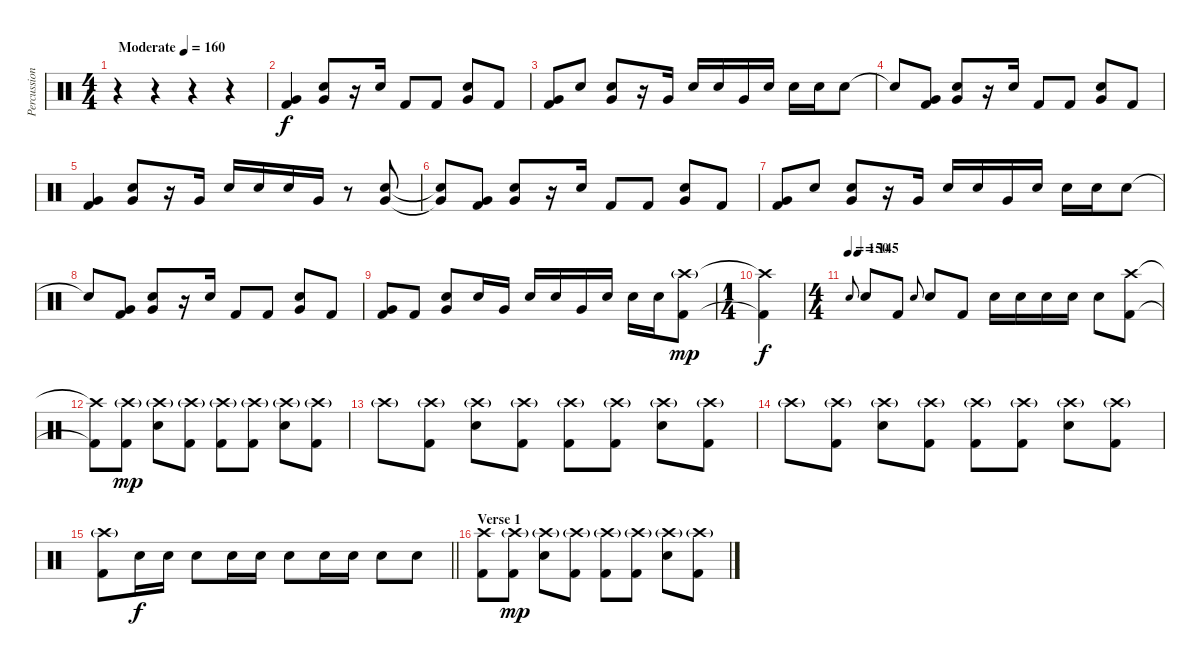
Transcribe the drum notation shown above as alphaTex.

\track ("Percussion" "Percussion") {instrument percussion}
\staff {score}
\articulation defaults
\ts (4 4)
\tempo (160 "Moderate")
\clef neutral
\ks c
r.4{dy f} r.4 r.4 r.4 |
("Very Low Tom (hit)" "Kick (hit) 2").4 ("Snare (hit) 2" "Very Low Tom (hit)").8 r.16 "Snare (hit) 2".16 "Kick (hit) 2".8 "Kick (hit) 2".8 ("Snare (hit) 2" "Very Low Tom (hit)").8 "Kick (hit) 2".8 |
("Very Low Tom (hit)" "Kick (hit) 2").8 "Snare (hit) 2".8 ("Snare (hit) 2" "Very Low Tom (hit)").8 r.16 "Very Low Tom (hit)".16 "Snare (hit) 2".16 "Snare (hit) 2".16 "Very Low Tom (hit)".16 "Snare (hit) 2".16 "Snare (hit) 2".16 "Snare (hit) 2".16 "Snare (hit) 2".8 |
"Snare (hit) 2"{t}.8 ("Very Low Tom (hit)" "Kick (hit) 2").8 ("Snare (hit) 2" "Very Low Tom (hit)").8 r.16 "Snare (hit) 2".16 "Kick (hit) 2".8 "Kick (hit) 2".8 ("Snare (hit) 2" "Very Low Tom (hit)").8 "Kick (hit) 2".8 |
("Very Low Tom (hit)" "Kick (hit) 2").4 ("Snare (hit) 2" "Very Low Tom (hit)").8 r.16 "Very Low Tom (hit)".16 "Snare (hit) 2".16 "Snare (hit) 2".16 "Snare (hit) 2".16 "Very Low Tom (hit)".16 r.8 ("Snare (hit) 2" "Very Low Tom (hit)").8 |
("Snare (hit) 2"{t} "Very Low Tom (hit)"{t}).8 ("Very Low Tom (hit)" "Kick (hit) 2").8 ("Snare (hit) 2" "Very Low Tom (hit)").8 r.16 "Snare (hit) 2".16 "Kick (hit) 2".8 "Kick (hit) 2".8 ("Snare (hit) 2" "Very Low Tom (hit)").8 "Kick (hit) 2".8 |
("Very Low Tom (hit)" "Kick (hit) 2").8 "Snare (hit) 2".8 ("Snare (hit) 2" "Very Low Tom (hit)").8 r.16 "Very Low Tom (hit)".16 "Snare (hit) 2".16 "Snare (hit) 2".16 "Very Low Tom (hit)".16 "Snare (hit) 2".16 "Snare (hit) 2".16 "Snare (hit) 2".16 "Snare (hit) 2".8 |
"Snare (hit) 2"{t}.8 ("Very Low Tom (hit)" "Kick (hit) 2").8 ("Snare (hit) 2" "Very Low Tom (hit)").8 r.16 "Snare (hit) 2".16 "Kick (hit) 2".8 "Kick (hit) 2".8 ("Snare (hit) 2" "Very Low Tom (hit)").8 "Kick (hit) 2".8 |
("Very Low Tom (hit)" "Kick (hit) 2").8 "Kick (hit) 2".8 ("Snare (hit) 2" "Very Low Tom (hit)").8 "Snare (hit) 2".16 "Very Low Tom (hit)".16 "Snare (hit) 2".16 "Snare (hit) 2".16 "Very Low Tom (hit)".16 "Snare (hit) 2".16 "Snare (hit) 2".16 "Snare (hit) 2".16 ("Crash high (hit)"{g} "Kick (hit) 2").8{dy mp} |
\ts (1 4)
("Crash high (hit)"{t} "Kick (hit) 2"{t}).4{dy f} |
\ts (4 4)
\tempo 150
\tempo (145 0.03125)
"Snare (hit) 2".8{gr onbeat} "Snare (hit) 2".8 "Kick (hit) 2".8 "Snare (hit) 2".8{gr onbeat} "Snare (hit) 2".8 "Kick (hit) 2".8 "Snare (hit) 2".16 "Snare (hit) 2".16 "Snare (hit) 2".16 "Snare (hit) 2".16 "Snare (hit) 2".8 ("Crash high (hit)" "Kick (hit) 2").8 |
("Crash high (hit)"{t} "Kick (hit) 2"{t}).8 ("Crash high (hit)"{g} "Kick (hit) 2").8{dy mp} ("Crash high (hit)"{g} "Snare (hit) 2").8 ("Crash high (hit)"{g} "Kick (hit) 2").8 ("Crash high (hit)"{g} "Kick (hit) 2").8 ("Crash high (hit)"{g} "Kick (hit) 2").8 ("Crash high (hit)"{g} "Snare (hit) 2").8 ("Crash high (hit)"{g} "Kick (hit) 2").8 |
"Crash high (hit)"{g}.8 ("Crash high (hit)"{g} "Kick (hit) 2").8 ("Crash high (hit)"{g} "Snare (hit) 2").8 ("Crash high (hit)"{g} "Kick (hit) 2").8 ("Crash high (hit)"{g} "Kick (hit) 2").8 ("Crash high (hit)"{g} "Kick (hit) 2").8 ("Crash high (hit)"{g} "Snare (hit) 2").8 ("Crash high (hit)"{g} "Kick (hit) 2").8 |
"Crash high (hit)"{g}.8 ("Crash high (hit)"{g} "Kick (hit) 2").8 ("Crash high (hit)"{g} "Snare (hit) 2").8 ("Crash high (hit)"{g} "Kick (hit) 2").8 ("Crash high (hit)"{g} "Kick (hit) 2").8 ("Crash high (hit)"{g} "Kick (hit) 2").8 ("Crash high (hit)"{g} "Snare (hit) 2").8 ("Crash high (hit)"{g} "Kick (hit) 2").8 |
\barLineRight lightlight
("Crash high (hit)"{g} "Kick (hit) 2").8 "Snare (hit) 2".16{dy f} "Snare (hit) 2".16 "Snare (hit) 2".8 "Snare (hit) 2".16 "Snare (hit) 2".16 "Snare (hit) 2".8 "Snare (hit) 2".16 "Snare (hit) 2".16 "Snare (hit) 2".8 "Snare (hit) 2".8 |
\section ("" "Verse 1")
("Crash high (hit)" "Kick (hit) 2").8 ("Crash high (hit)"{g} "Kick (hit) 2").8{dy mp} ("Crash high (hit)"{g} "Snare (hit) 2").8 ("Crash high (hit)"{g} "Kick (hit) 2").8 ("Crash high (hit)"{g} "Kick (hit) 2").8 ("Crash high (hit)"{g} "Kick (hit) 2").8 ("Crash high (hit)"{g} "Snare (hit) 2").8 ("Crash high (hit)"{g} "Kick (hit) 2").8
